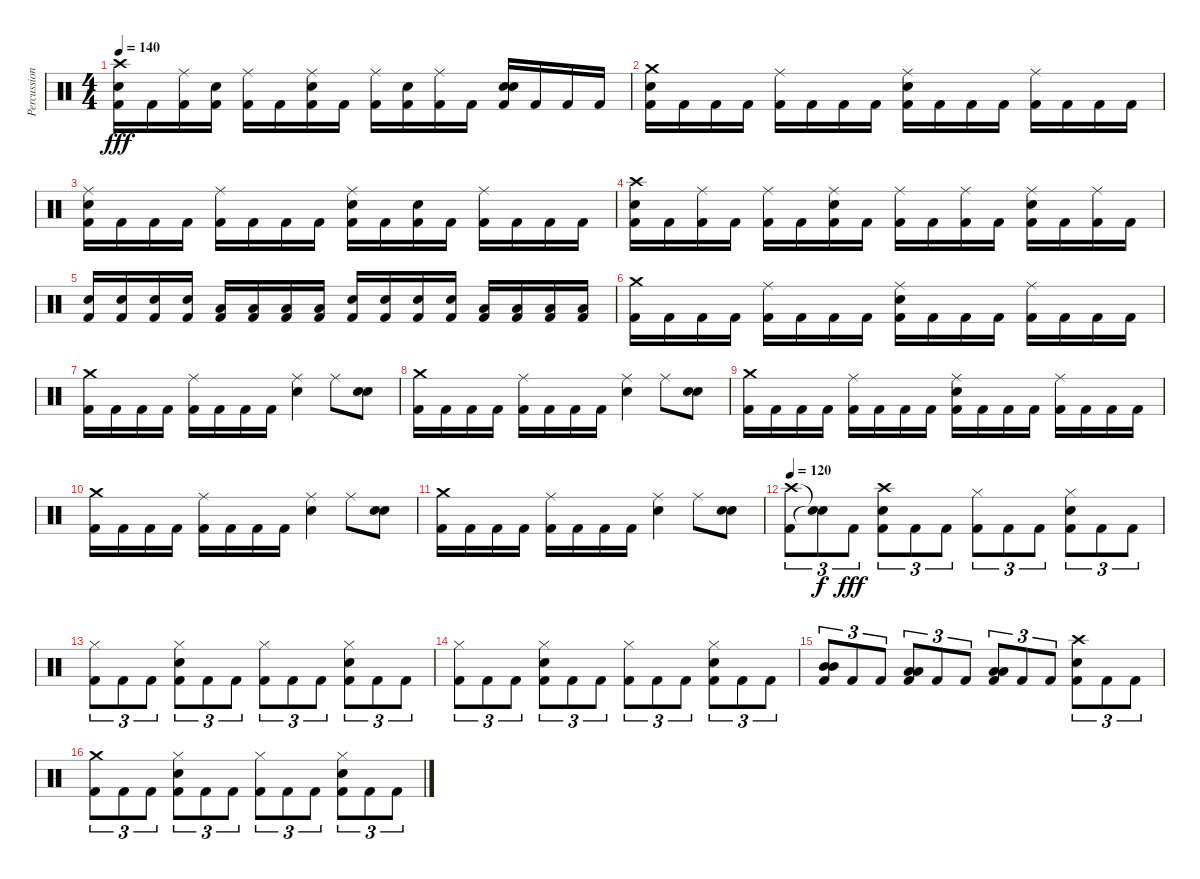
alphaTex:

\track ("Percussion" "Percussion") {instrument percussion}
\staff {score}
\articulation defaults
\ts (4 4)
\tempo 140
\clef neutral
\ks c
("Crash high (hit)" "Snare (hit) 2" "Kick (hit) 2").16{dy fff} "Kick (hit) 2".16 ("Ride (middle)" "Kick (hit) 2").16 ("Snare (hit) 2" "Kick (hit) 2").16 ("Ride (middle)" "Kick (hit) 2").16 "Kick (hit) 2".16 ("Ride (middle)" "Snare (hit) 2" "Kick (hit) 2").16 "Kick (hit) 2".16 ("Ride (middle)" "Kick (hit) 2").16 ("Snare (hit) 2" "Kick (hit) 2").16 ("Ride (middle)" "Kick (hit) 2").16 "Kick (hit) 2".16 ("Snare (hit) 2" "Snare (hit) 2" "Kick (hit) 2").16 "Kick (hit) 2".16 "Kick (hit) 2".16 "Kick (hit) 2".16 |
("Crash medium (hit)" "Snare (hit) 2" "Kick (hit) 2").16 "Kick (hit) 2".16 "Kick (hit) 2".16 "Kick (hit) 2".16 ("Ride (middle)" "Kick (hit) 2").16 "Kick (hit) 2".16 "Kick (hit) 2".16 "Kick (hit) 2".16 ("Ride (middle)" "Snare (hit) 2" "Kick (hit) 2").16 "Kick (hit) 2".16 "Kick (hit) 2".16 "Kick (hit) 2".16 ("Ride (middle)" "Kick (hit) 2").16 "Kick (hit) 2".16 "Kick (hit) 2".16 "Kick (hit) 2".16 |
("Ride (middle)" "Snare (hit) 2" "Kick (hit) 2").16 "Kick (hit) 2".16 "Kick (hit) 2".16 "Kick (hit) 2".16 ("Ride (middle)" "Kick (hit) 2").16 "Kick (hit) 2".16 "Kick (hit) 2".16 "Kick (hit) 2".16 ("Ride (middle)" "Snare (hit) 2" "Kick (hit) 2").16 "Kick (hit) 2".16 ("Snare (hit) 2" "Kick (hit) 2").16 "Kick (hit) 2".16 ("Ride (middle)" "Kick (hit) 2").16 "Kick (hit) 2".16 "Kick (hit) 2".16 "Kick (hit) 2".16 |
("Crash high (hit)" "Snare (hit) 2" "Kick (hit) 2").16 "Kick (hit) 2".16 ("Ride (middle)" "Kick (hit) 2").16 "Kick (hit) 2".16 ("Ride (middle)" "Kick (hit) 2").16 "Kick (hit) 2".16 ("Ride (middle)" "Snare (hit) 2" "Kick (hit) 2").16 "Kick (hit) 2".16 ("Ride (middle)" "Kick (hit) 2").16 "Kick (hit) 2".16 ("Ride (middle)" "Kick (hit) 2").16 "Kick (hit) 2".16 ("Ride (middle)" "Snare (hit) 2" "Kick (hit) 2").16 "Kick (hit) 2".16 ("Ride (middle)" "Kick (hit) 2").16 "Kick (hit) 2".16 |
("Snare (hit) 2" "Kick (hit) 2").16 ("Snare (hit) 2" "Kick (hit) 2").16 ("Snare (hit) 2" "Kick (hit) 2").16 ("Snare (hit) 2" "Kick (hit) 2").16 ("Low Tom (hit)" "Kick (hit) 2").16 ("Low Tom (hit)" "Kick (hit) 2").16 ("Low Tom (hit)" "Kick (hit) 2").16 ("Low Tom (hit)" "Kick (hit) 2").16 ("Snare (hit) 2" "Kick (hit) 2").16 ("Snare (hit) 2" "Kick (hit) 2").16 ("Snare (hit) 2" "Kick (hit) 2").16 ("Snare (hit) 2" "Kick (hit) 2").16 ("Low Floor Tom (hit)" "Kick (hit) 2").16 ("Low Floor Tom (hit)" "Kick (hit) 2").16 ("Low Floor Tom (hit)" "Kick (hit) 2").16 ("Low Floor Tom (hit)" "Kick (hit) 2").16 |
("Crash medium (hit)" "Kick (hit) 2").16 "Kick (hit) 2".16 "Kick (hit) 2".16 "Kick (hit) 2".16 ("Ride (middle)" "Kick (hit) 2").16 "Kick (hit) 2".16 "Kick (hit) 2".16 "Kick (hit) 2".16 ("Ride (middle)" "Snare (hit) 2" "Kick (hit) 2").16 "Kick (hit) 2".16 "Kick (hit) 2".16 "Kick (hit) 2".16 ("Ride (middle)" "Kick (hit) 2").16 "Kick (hit) 2".16 "Kick (hit) 2".16 "Kick (hit) 2".16 |
("Crash medium (hit)" "Kick (hit) 2").16 "Kick (hit) 2".16 "Kick (hit) 2".16 "Kick (hit) 2".16 ("Ride (middle)" "Kick (hit) 2").16 "Kick (hit) 2".16 "Kick (hit) 2".16 "Kick (hit) 2".16 ("Ride (middle)" "Snare (hit) 2").4 "Ride (middle)".8 ("Snare (hit) 2" "Snare (hit) 2").8 |
("Crash medium (hit)" "Kick (hit) 2").16 "Kick (hit) 2".16 "Kick (hit) 2".16 "Kick (hit) 2".16 ("Ride (middle)" "Kick (hit) 2").16 "Kick (hit) 2".16 "Kick (hit) 2".16 "Kick (hit) 2".16 ("Ride (middle)" "Snare (hit) 2").4 "Ride (middle)".8 ("Snare (hit) 2" "Snare (hit) 2").8 |
("Crash medium (hit)" "Kick (hit) 2").16 "Kick (hit) 2".16 "Kick (hit) 2".16 "Kick (hit) 2".16 ("Ride (middle)" "Kick (hit) 2").16 "Kick (hit) 2".16 "Kick (hit) 2".16 "Kick (hit) 2".16 ("Ride (middle)" "Snare (hit) 2" "Kick (hit) 2").16 "Kick (hit) 2".16 "Kick (hit) 2".16 "Kick (hit) 2".16 ("Ride (middle)" "Kick (hit) 2").16 "Kick (hit) 2".16 "Kick (hit) 2".16 "Kick (hit) 2".16 |
("Crash medium (hit)" "Kick (hit) 2").16 "Kick (hit) 2".16 "Kick (hit) 2".16 "Kick (hit) 2".16 ("Ride (middle)" "Kick (hit) 2").16 "Kick (hit) 2".16 "Kick (hit) 2".16 "Kick (hit) 2".16 ("Ride (middle)" "Snare (hit) 2").4 "Ride (middle)".8 ("Snare (hit) 2" "Snare (hit) 2").8 |
("Crash medium (hit)" "Kick (hit) 2").16 "Kick (hit) 2".16 "Kick (hit) 2".16 "Kick (hit) 2".16 ("Ride (middle)" "Kick (hit) 2").16 "Kick (hit) 2".16 "Kick (hit) 2".16 "Kick (hit) 2".16 ("Ride (middle)" "Snare (hit) 2").4 "Ride (middle)".8 ("Snare (hit) 2" "Snare (hit) 2").8 |
\tempo 120
("Crash high (hit)" "Kick (hit) 2").8{tu (3 2)} ("Snare (hit)"{t} "Snare (hit)"{t}).8{tu (3 2) dy f} "Kick (hit) 2".8{tu (3 2) dy fff} ("Crash high (hit)" "Snare (hit) 2" "Kick (hit) 2").8{tu (3 2)} "Kick (hit) 2".8{tu (3 2)} "Kick (hit) 2".8{tu (3 2)} ("Hi-Hat (closed)" "Kick (hit) 2").8{tu (3 2)} "Kick (hit) 2".8{tu (3 2)} "Kick (hit) 2".8{tu (3 2)} ("Hi-Hat (closed)" "Snare (hit) 2" "Kick (hit) 2").8{tu (3 2)} "Kick (hit) 2".8{tu (3 2)} "Kick (hit) 2".8{tu (3 2)} |
("Hi-Hat (closed)" "Kick (hit) 2").8{tu (3 2)} "Kick (hit) 2".8{tu (3 2)} "Kick (hit) 2".8{tu (3 2)} ("Hi-Hat (closed)" "Snare (hit) 2" "Kick (hit) 2").8{tu (3 2)} "Kick (hit) 2".8{tu (3 2)} "Kick (hit) 2".8{tu (3 2)} ("Hi-Hat (closed)" "Kick (hit) 2").8{tu (3 2)} "Kick (hit) 2".8{tu (3 2)} "Kick (hit) 2".8{tu (3 2)} ("Hi-Hat (closed)" "Snare (hit) 2" "Kick (hit) 2").8{tu (3 2)} "Kick (hit) 2".8{tu (3 2)} "Kick (hit) 2".8{tu (3 2)} |
("Hi-Hat (closed)" "Kick (hit) 2").8{tu (3 2)} "Kick (hit) 2".8{tu (3 2)} "Kick (hit) 2".8{tu (3 2)} ("Hi-Hat (closed)" "Snare (hit) 2" "Kick (hit) 2").8{tu (3 2)} "Kick (hit) 2".8{tu (3 2)} "Kick (hit) 2".8{tu (3 2)} ("Hi-Hat (closed)" "Kick (hit) 2").8{tu (3 2)} "Kick (hit) 2".8{tu (3 2)} "Kick (hit) 2".8{tu (3 2)} ("Hi-Hat (closed)" "Snare (hit) 2" "Kick (hit) 2").8{tu (3 2)} "Kick (hit) 2".8{tu (3 2)} "Kick (hit) 2".8{tu (3 2)} |
("Mid Tom (hit)" "Mid Tom (hit)" "Kick (hit) 2").8{tu (3 2)} "Kick (hit) 2".8{tu (3 2)} "Kick (hit) 2".8{tu (3 2)} ("Low Tom (hit)" "Low Tom (hit)" "Kick (hit) 2").8{tu (3 2)} "Kick (hit) 2".8{tu (3 2)} "Kick (hit) 2".8{tu (3 2)} ("Low Floor Tom (hit)" "Low Floor Tom (hit)" "Kick (hit) 2").8{tu (3 2)} "Kick (hit) 2".8{tu (3 2)} "Kick (hit) 2".8{tu (3 2)} ("Crash high (hit)" "Snare (hit) 2" "Kick (hit) 2").8{tu (3 2)} "Kick (hit) 2".8{tu (3 2)} "Kick (hit) 2".8{tu (3 2)} |
("Crash medium (hit)" "Kick (hit) 2").8{tu (3 2)} "Kick (hit) 2".8{tu (3 2)} "Kick (hit) 2".8{tu (3 2)} ("Hi-Hat (closed)" "Snare (hit) 2" "Kick (hit) 2").8{tu (3 2)} "Kick (hit) 2".8{tu (3 2)} "Kick (hit) 2".8{tu (3 2)} ("Hi-Hat (closed)" "Kick (hit) 2").8{tu (3 2)} "Kick (hit) 2".8{tu (3 2)} "Kick (hit) 2".8{tu (3 2)} ("Hi-Hat (closed)" "Snare (hit) 2" "Kick (hit) 2").8{tu (3 2)} "Kick (hit) 2".8{tu (3 2)} "Kick (hit) 2".8{tu (3 2)}
